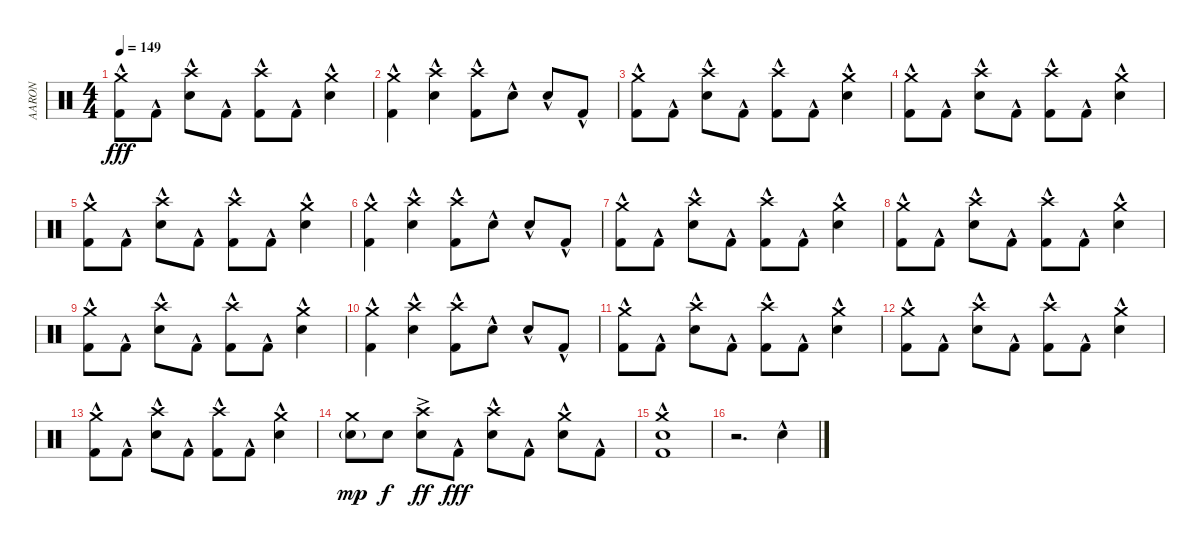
\track ("AARON" "AARON") {instrument percussion}
\staff {score}
\articulation defaults
\ts (4 4)
\tempo 149
\clef neutral
\ks c
("Crash medium (hit)" "Kick (hit) 2"{hac}).8{dy fff} "Kick (hit) 2"{hac}.8 ("Crash high (hit)" "Snare (hit) 2"{hac}).8 "Kick (hit) 2"{hac}.8 ("Crash high (hit)" "Kick (hit) 2"{hac}).8 "Kick (hit) 2"{hac}.8 ("Crash medium (hit)" "Snare (hit) 2"{hac}).4 |
("Crash medium (hit)" "Kick (hit) 2"{hac}).4 ("Crash high (hit)" "Snare (hit) 2"{hac}).4 ("Crash high (hit)" "Kick (hit) 2"{hac}).8 "Snare (hit) 2"{hac}.8 "Snare (hit) 2"{hac}.8 "Kick (hit) 2"{hac}.8 |
("Crash medium (hit)" "Kick (hit) 2"{hac}).8 "Kick (hit) 2"{hac}.8 ("Crash high (hit)" "Snare (hit) 2"{hac}).8 "Kick (hit) 2"{hac}.8 ("Crash high (hit)" "Kick (hit) 2"{hac}).8 "Kick (hit) 2"{hac}.8 ("Crash medium (hit)" "Snare (hit) 2"{hac}).4 |
("Crash medium (hit)" "Kick (hit) 2"{hac}).8 "Kick (hit) 2"{hac}.8 ("Crash high (hit)" "Snare (hit) 2"{hac}).8 "Kick (hit) 2"{hac}.8 ("Crash high (hit)" "Kick (hit) 2"{hac}).8 "Kick (hit) 2"{hac}.8 ("Crash medium (hit)" "Snare (hit) 2"{hac}).4 |
("Crash medium (hit)" "Kick (hit) 2"{hac}).8 "Kick (hit) 2"{hac}.8 ("Crash high (hit)" "Snare (hit) 2"{hac}).8 "Kick (hit) 2"{hac}.8 ("Crash high (hit)" "Kick (hit) 2"{hac}).8 "Kick (hit) 2"{hac}.8 ("Crash medium (hit)" "Snare (hit) 2"{hac}).4 |
("Crash medium (hit)" "Kick (hit) 2"{hac}).4 ("Crash high (hit)" "Snare (hit) 2"{hac}).4 ("Crash high (hit)" "Kick (hit) 2"{hac}).8 "Snare (hit) 2"{hac}.8 "Snare (hit) 2"{hac}.8 "Kick (hit) 2"{hac}.8 |
("Crash medium (hit)" "Kick (hit) 2"{hac}).8 "Kick (hit) 2"{hac}.8 ("Crash high (hit)" "Snare (hit) 2"{hac}).8 "Kick (hit) 2"{hac}.8 ("Crash high (hit)" "Kick (hit) 2"{hac}).8 "Kick (hit) 2"{hac}.8 ("Crash medium (hit)" "Snare (hit) 2"{hac}).4 |
("Crash medium (hit)" "Kick (hit) 2"{hac}).8 "Kick (hit) 2"{hac}.8 ("Crash high (hit)" "Snare (hit) 2"{hac}).8 "Kick (hit) 2"{hac}.8 ("Crash high (hit)" "Kick (hit) 2"{hac}).8 "Kick (hit) 2"{hac}.8 ("Crash medium (hit)" "Snare (hit) 2"{hac}).4 |
("Crash medium (hit)" "Kick (hit) 2"{hac}).8 "Kick (hit) 2"{hac}.8 ("Crash high (hit)" "Snare (hit) 2"{hac}).8 "Kick (hit) 2"{hac}.8 ("Crash high (hit)" "Kick (hit) 2"{hac}).8 "Kick (hit) 2"{hac}.8 ("Crash medium (hit)" "Snare (hit) 2"{hac}).4 |
("Crash medium (hit)" "Kick (hit) 2"{hac}).4 ("Crash high (hit)" "Snare (hit) 2"{hac}).4 ("Crash high (hit)" "Kick (hit) 2"{hac}).8 "Snare (hit) 2"{hac}.8 "Snare (hit) 2"{hac}.8 "Kick (hit) 2"{hac}.8 |
("Crash medium (hit)" "Kick (hit) 2"{hac}).8 "Kick (hit) 2"{hac}.8 ("Crash high (hit)" "Snare (hit) 2"{hac}).8 "Kick (hit) 2"{hac}.8 ("Crash high (hit)" "Kick (hit) 2"{hac}).8 "Kick (hit) 2"{hac}.8 ("Crash medium (hit)" "Snare (hit) 2"{hac}).4 |
("Crash medium (hit)" "Kick (hit) 2"{hac}).8 "Kick (hit) 2"{hac}.8 ("Crash high (hit)" "Snare (hit) 2"{hac}).8 "Kick (hit) 2"{hac}.8 ("Crash high (hit)" "Kick (hit) 2"{hac}).8 "Kick (hit) 2"{hac}.8 ("Crash medium (hit)" "Snare (hit) 2"{hac}).4 |
("Crash medium (hit)" "Kick (hit) 2"{hac}).8 "Kick (hit) 2"{hac}.8 ("Crash high (hit)" "Snare (hit) 2"{hac}).8 "Kick (hit) 2"{hac}.8 ("Crash high (hit)" "Kick (hit) 2"{hac}).8 "Kick (hit) 2"{hac}.8 ("Crash medium (hit)" "Snare (hit) 2"{hac}).4 |
("Crash medium (hit)" "Snare (hit) 2"{g}).8{dy mp} "Snare (hit) 2".8{dy f} ("Crash high (hit)" "Snare (hit) 2"{ac}).8{dy ff} "Kick (hit) 2"{hac}.8{dy fff} ("Crash high (hit)" "Snare (hit) 2"{hac}).8 "Kick (hit) 2"{hac}.8 ("Crash medium (hit)" "Snare (hit) 2"{hac}).8 "Kick (hit) 2"{hac}.8 |
("Crash medium (hit)" "Snare (hit) 2"{hac} "Kick (hit) 2"{hac}).1 |
r.2{d} "Snare (hit) 2"{hac}.4
